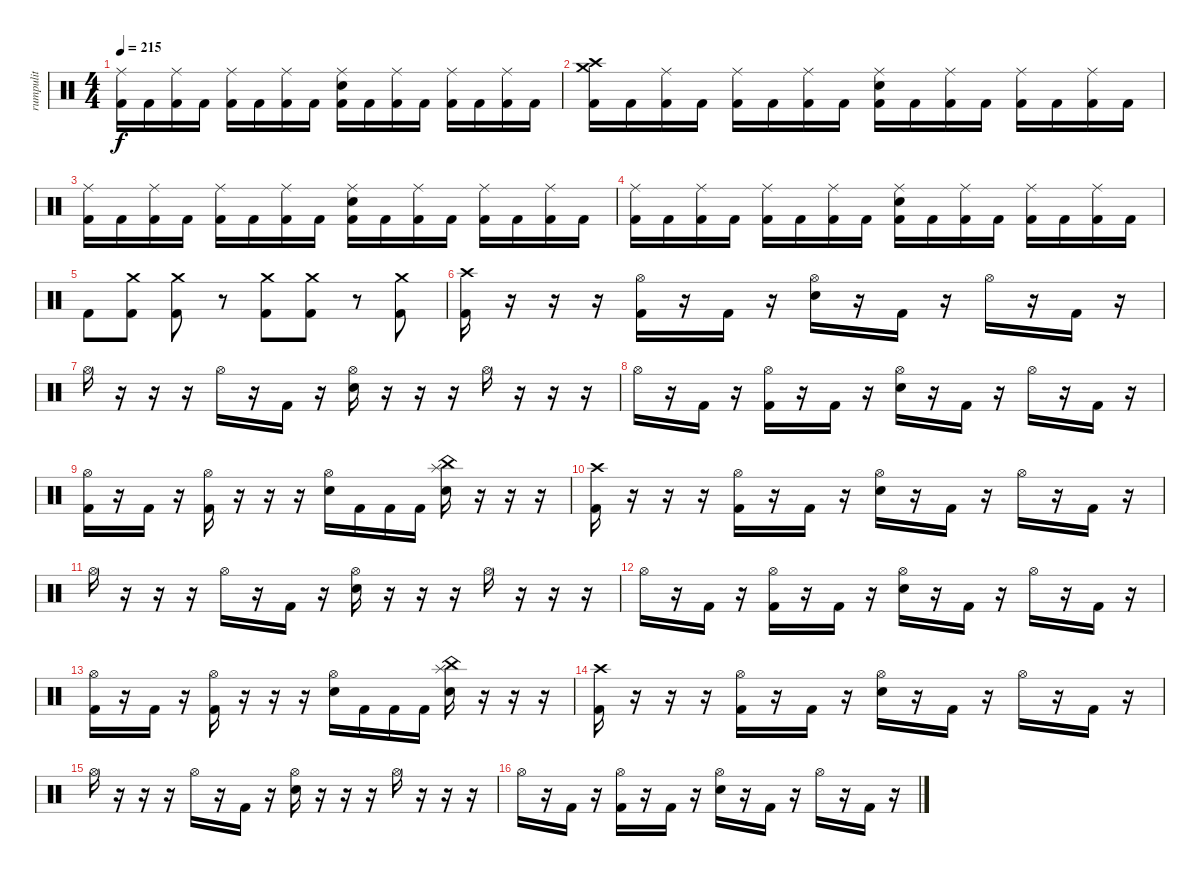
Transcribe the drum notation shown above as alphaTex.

\track ("rumpulit" "rumpulit") {instrument percussion}
\staff {score}
\articulation defaults
\ts (4 4)
\tempo 215
\clef neutral
\ks c
("Ride (middle)" "Kick (hit) 2").16{dy f} "Kick (hit) 2".16 ("Ride (middle)" "Kick (hit) 2").16 "Kick (hit) 2".16 ("Ride (middle)" "Kick (hit) 2").16 "Kick (hit) 2".16 ("Ride (middle)" "Kick (hit) 2").16 "Kick (hit) 2".16 ("Ride (middle)" "Kick (hit) 2" "Electric Snare (hit)").16 "Kick (hit) 2".16 ("Ride (middle)" "Kick (hit) 2").16 "Kick (hit) 2".16 ("Ride (middle)" "Kick (hit) 2").16 "Kick (hit) 2".16 ("Ride (middle)" "Kick (hit) 2").16 "Kick (hit) 2".16 |
("Crash high (hit)" "Kick (hit) 2" "Crash medium (hit)").16 "Kick (hit) 2".16 ("Ride (middle)" "Kick (hit) 2").16 "Kick (hit) 2".16 ("Ride (middle)" "Kick (hit) 2").16 "Kick (hit) 2".16 ("Ride (middle)" "Kick (hit) 2").16 "Kick (hit) 2".16 ("Ride (middle)" "Kick (hit) 2" "Electric Snare (hit)").16 "Kick (hit) 2".16 ("Ride (middle)" "Kick (hit) 2").16 "Kick (hit) 2".16 ("Ride (middle)" "Kick (hit) 2").16 "Kick (hit) 2".16 ("Ride (middle)" "Kick (hit) 2").16 "Kick (hit) 2".16 |
("Ride (middle)" "Kick (hit) 2").16 "Kick (hit) 2".16 ("Ride (middle)" "Kick (hit) 2").16 "Kick (hit) 2".16 ("Ride (middle)" "Kick (hit) 2").16 "Kick (hit) 2".16 ("Ride (middle)" "Kick (hit) 2").16 "Kick (hit) 2".16 ("Ride (middle)" "Kick (hit) 2" "Electric Snare (hit)").16 "Kick (hit) 2".16 ("Ride (middle)" "Kick (hit) 2").16 "Kick (hit) 2".16 ("Ride (middle)" "Kick (hit) 2").16 "Kick (hit) 2".16 ("Ride (middle)" "Kick (hit) 2").16 "Kick (hit) 2".16 |
("Ride (middle)" "Kick (hit) 2").16 "Kick (hit) 2".16 ("Ride (middle)" "Kick (hit) 2").16 "Kick (hit) 2".16 ("Ride (middle)" "Kick (hit) 2").16 "Kick (hit) 2".16 ("Ride (middle)" "Kick (hit) 2").16 "Kick (hit) 2".16 ("Ride (middle)" "Kick (hit) 2" "Electric Snare (hit)").16 "Kick (hit) 2".16 ("Ride (middle)" "Kick (hit) 2").16 "Kick (hit) 2".16 ("Ride (middle)" "Kick (hit) 2").16 "Kick (hit) 2".16 ("Ride (middle)" "Kick (hit) 2").16 "Kick (hit) 2".16 |
"Kick (hit) 2".8 ("Crash medium (hit)" "Kick (hit) 2").8 ("Crash medium (hit)" "Kick (hit) 2").8 r.8 ("Crash medium (hit)" "Kick (hit) 2").8 ("Crash medium (hit)" "Kick (hit) 2").8 r.8 ("Crash medium (hit)" "Kick (hit) 2").8 |
("Crash high (hit)" "Kick (hit) 2").16 r.16 r.16 r.16 ("Hi-Hat (open)" "Kick (hit) 2").16 r.16 "Kick (hit) 2".16 r.16 ("Hi-Hat (open)" "Electric Snare (hit)").16 r.16 "Kick (hit) 2".16 r.16 "Hi-Hat (open)".16 r.16 "Kick (hit) 2".16 r.16 |
"Hi-Hat (open)".16 r.16 r.16 r.16 "Hi-Hat (open)".16 r.16 "Kick (hit) 2".16 r.16 ("Hi-Hat (open)" "Electric Snare (hit)").16 r.16 r.16 r.16 "Hi-Hat (open)".16 r.16 r.16 r.16 |
"Hi-Hat (open)".16 r.16 "Kick (hit) 2".16 r.16 ("Hi-Hat (open)" "Kick (hit) 2").16 r.16 "Kick (hit) 2".16 r.16 ("Hi-Hat (open)" "Electric Snare (hit)").16 r.16 "Kick (hit) 2".16 r.16 "Hi-Hat (open)".16 r.16 "Kick (hit) 2".16 r.16 |
("Hi-Hat (open)" "Kick (hit) 2").16 r.16 "Kick (hit) 2".16 r.16 ("Hi-Hat (open)" "Kick (hit) 2").16 r.16 r.16 r.16 ("Hi-Hat (open)" "Electric Snare (hit)").16 "Kick (hit) 2".16 "Kick (hit) 2".16 "Kick (hit) 2".16 ("China (hit)" "Electric Snare (hit)" "Splash (hit)").16 r.16 r.16 r.16 |
("Crash high (hit)" "Kick (hit) 2").16 r.16 r.16 r.16 ("Hi-Hat (open)" "Kick (hit) 2").16 r.16 "Kick (hit) 2".16 r.16 ("Hi-Hat (open)" "Electric Snare (hit)").16 r.16 "Kick (hit) 2".16 r.16 "Hi-Hat (open)".16 r.16 "Kick (hit) 2".16 r.16 |
"Hi-Hat (open)".16 r.16 r.16 r.16 "Hi-Hat (open)".16 r.16 "Kick (hit) 2".16 r.16 ("Hi-Hat (open)" "Electric Snare (hit)").16 r.16 r.16 r.16 "Hi-Hat (open)".16 r.16 r.16 r.16 |
"Hi-Hat (open)".16 r.16 "Kick (hit) 2".16 r.16 ("Hi-Hat (open)" "Kick (hit) 2").16 r.16 "Kick (hit) 2".16 r.16 ("Hi-Hat (open)" "Electric Snare (hit)").16 r.16 "Kick (hit) 2".16 r.16 "Hi-Hat (open)".16 r.16 "Kick (hit) 2".16 r.16 |
("Hi-Hat (open)" "Kick (hit) 2").16 r.16 "Kick (hit) 2".16 r.16 ("Hi-Hat (open)" "Kick (hit) 2").16 r.16 r.16 r.16 ("Hi-Hat (open)" "Electric Snare (hit)").16 "Kick (hit) 2".16 "Kick (hit) 2".16 "Kick (hit) 2".16 ("China (hit)" "Electric Snare (hit)" "Splash (hit)").16 r.16 r.16 r.16 |
("Crash high (hit)" "Kick (hit) 2").16 r.16 r.16 r.16 ("Hi-Hat (open)" "Kick (hit) 2").16 r.16 "Kick (hit) 2".16 r.16 ("Hi-Hat (open)" "Electric Snare (hit)").16 r.16 "Kick (hit) 2".16 r.16 "Hi-Hat (open)".16 r.16 "Kick (hit) 2".16 r.16 |
"Hi-Hat (open)".16 r.16 r.16 r.16 "Hi-Hat (open)".16 r.16 "Kick (hit) 2".16 r.16 ("Hi-Hat (open)" "Electric Snare (hit)").16 r.16 r.16 r.16 "Hi-Hat (open)".16 r.16 r.16 r.16 |
"Hi-Hat (open)".16 r.16 "Kick (hit) 2".16 r.16 ("Hi-Hat (open)" "Kick (hit) 2").16 r.16 "Kick (hit) 2".16 r.16 ("Hi-Hat (open)" "Electric Snare (hit)").16 r.16 "Kick (hit) 2".16 r.16 "Hi-Hat (open)".16 r.16 "Kick (hit) 2".16 r.16
